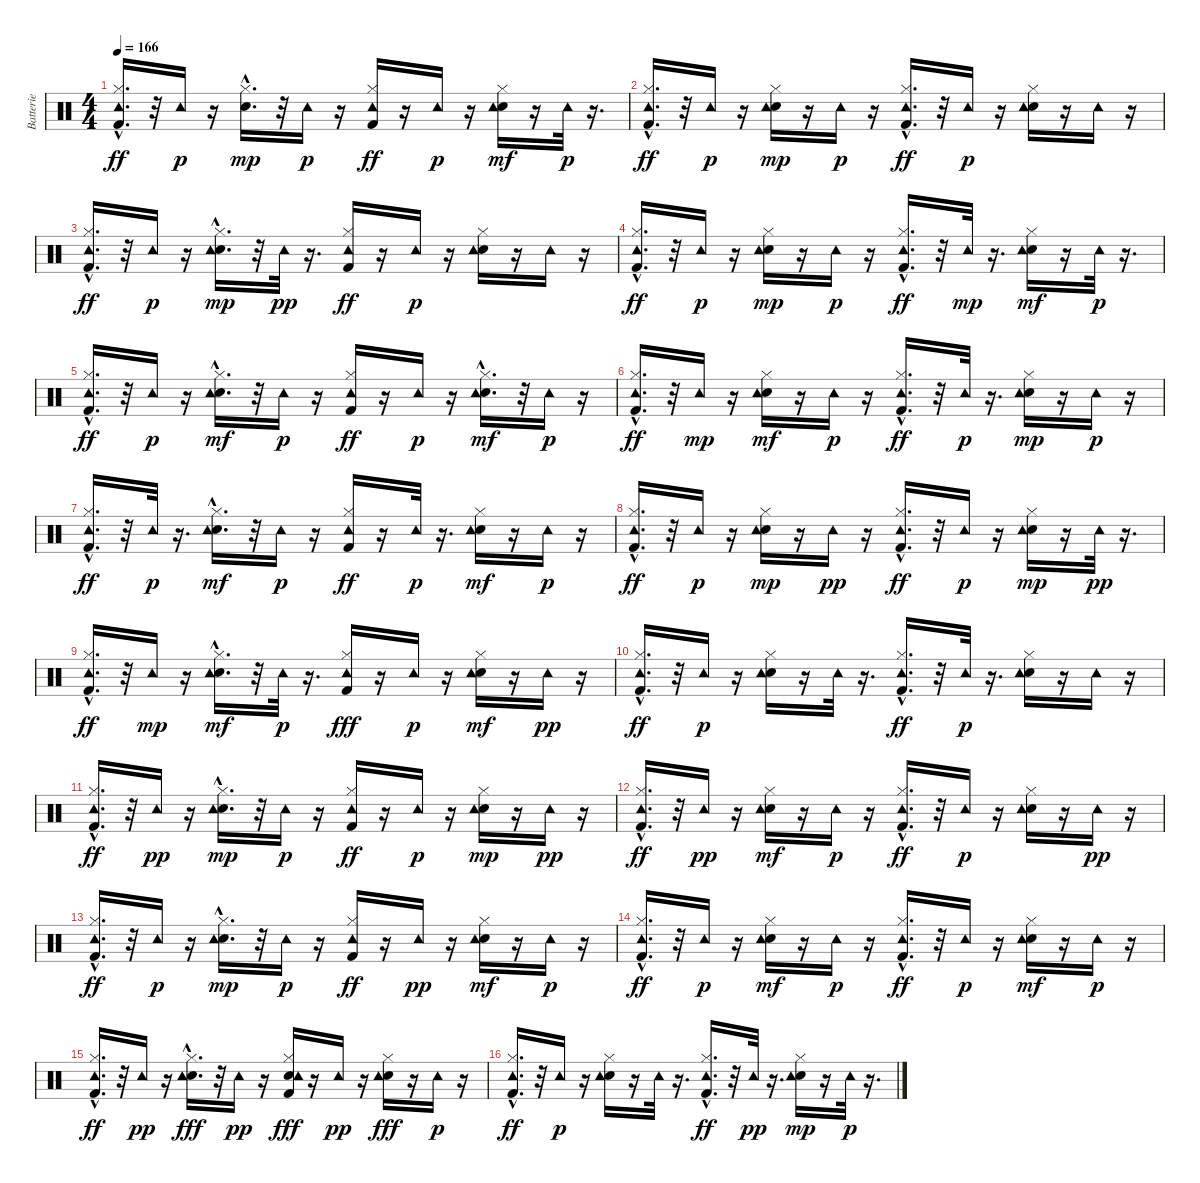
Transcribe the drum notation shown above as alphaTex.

\track ("Batterie" "Batterie") {instrument percussion}
\staff {score}
\articulation defaults
\ts (4 4)
\tempo 166
\clef neutral
\ks c
("Kick (hit) 2"{hac} "Hi-Hat (closed)" "Tambourine (hit)").16{d dy ff} r.32 "Tambourine (hit)".16{dy p} r.16 ("Electric Snare (hit)" "Hi-Hat (closed)"{hac}).16{d dy mp} r.32 "Tambourine (hit)".16{dy p} r.16 ("Kick (hit) 2" "Hi-Hat (closed)" "Tambourine (hit)").16{dy ff} r.16 "Tambourine (hit)".16{dy p} r.16 ("Electric Snare (hit)" "Hi-Hat (closed)" "Tambourine (hit)").16{dy mf} r.16 "Tambourine (hit)".32{dy p} r.16{d} |
("Kick (hit) 2"{hac} "Hi-Hat (closed)"{hac} "Tambourine (hit)").16{d dy ff} r.32 "Tambourine (hit)".16{dy p} r.16 ("Electric Snare (hit)" "Hi-Hat (closed)" "Tambourine (hit)").16{dy mp} r.16 "Tambourine (hit)".16{dy p} r.16 ("Kick (hit) 2"{hac} "Hi-Hat (closed)" "Tambourine (hit)").16{d dy ff} r.32 "Tambourine (hit)".16{dy p} r.16 ("Electric Snare (hit)" "Hi-Hat (closed)" "Tambourine (hit)").16 r.16 "Tambourine (hit)".16 r.16 |
("Kick (hit) 2"{hac} "Hi-Hat (closed)" "Tambourine (hit)").16{d dy ff} r.32 "Tambourine (hit)".16{dy p} r.16 ("Electric Snare (hit)" "Hi-Hat (closed)"{hac} "Tambourine (hit)").16{d dy mp} r.32 "Tambourine (hit)".32{dy pp} r.16{d} ("Kick (hit) 2" "Hi-Hat (closed)" "Tambourine (hit)").16{dy ff} r.16 "Tambourine (hit)".16{dy p} r.16 ("Electric Snare (hit)" "Hi-Hat (closed)" "Tambourine (hit)").16 r.16 "Tambourine (hit)".16 r.16 |
("Kick (hit) 2"{hac} "Hi-Hat (closed)"{hac} "Tambourine (hit)").16{d dy ff} r.32 "Tambourine (hit)".16{dy p} r.16 ("Electric Snare (hit)" "Hi-Hat (closed)" "Tambourine (hit)").16{dy mp} r.16 "Tambourine (hit)".16{dy p} r.16 ("Kick (hit) 2"{hac} "Hi-Hat (closed)" "Tambourine (hit)").16{d dy ff} r.32 "Tambourine (hit)".32{dy mp} r.16{d} ("Electric Snare (hit)" "Hi-Hat (closed)" "Tambourine (hit)").16{dy mf} r.16 "Tambourine (hit)".32{dy p} r.16{d} |
("Kick (hit) 2"{hac} "Hi-Hat (closed)" "Tambourine (hit)").16{d dy ff} r.32 "Tambourine (hit)".16{dy p} r.16 ("Electric Snare (hit)" "Hi-Hat (closed)"{hac} "Tambourine (hit)").16{d dy mf} r.32 "Tambourine (hit)".16{dy p} r.16 ("Kick (hit) 2" "Hi-Hat (closed)" "Tambourine (hit)").16{dy ff} r.16 "Tambourine (hit)".16{dy p} r.16 ("Electric Snare (hit)"{hac} "Hi-Hat (closed)" "Tambourine (hit)").16{d dy mf} r.32 "Tambourine (hit)".16{dy p} r.16 |
("Kick (hit) 2"{hac} "Hi-Hat (closed)"{hac} "Tambourine (hit)").16{d dy ff} r.32 "Tambourine (hit)".16{dy mp} r.16 ("Electric Snare (hit)" "Hi-Hat (closed)" "Tambourine (hit)").16{dy mf} r.16 "Tambourine (hit)".16{dy p} r.16 ("Kick (hit) 2"{hac} "Hi-Hat (closed)" "Tambourine (hit)").16{d dy ff} r.32 "Tambourine (hit)".32{dy p} r.16{d} ("Electric Snare (hit)" "Hi-Hat (closed)" "Tambourine (hit)").16{dy mp} r.16 "Tambourine (hit)".16{dy p} r.16 |
("Kick (hit) 2"{hac} "Hi-Hat (closed)" "Tambourine (hit)").16{d dy ff} r.32 "Tambourine (hit)".32{dy p} r.16{d} ("Electric Snare (hit)" "Hi-Hat (closed)"{hac} "Tambourine (hit)").16{d dy mf} r.32 "Tambourine (hit)".16{dy p} r.16 ("Kick (hit) 2" "Hi-Hat (closed)" "Tambourine (hit)").16{dy ff} r.16 "Tambourine (hit)".32{dy p} r.16{d} ("Electric Snare (hit)" "Hi-Hat (closed)" "Tambourine (hit)").16{dy mf} r.16 "Tambourine (hit)".16{dy p} r.16 |
("Kick (hit) 2"{hac} "Hi-Hat (closed)"{hac} "Tambourine (hit)").16{d dy ff} r.32 "Tambourine (hit)".16{dy p} r.16 ("Electric Snare (hit)" "Hi-Hat (closed)" "Tambourine (hit)").16{dy mp} r.16 "Tambourine (hit)".16{dy pp} r.16 ("Kick (hit) 2"{hac} "Hi-Hat (closed)" "Tambourine (hit)").16{d dy ff} r.32 "Tambourine (hit)".16{dy p} r.16 ("Electric Snare (hit)" "Hi-Hat (closed)" "Tambourine (hit)").16{dy mp} r.16 "Tambourine (hit)".32{dy pp} r.16{d} |
("Kick (hit) 2"{hac} "Hi-Hat (closed)" "Tambourine (hit)").16{d dy ff} r.32 "Tambourine (hit)".16{dy mp} r.16 ("Electric Snare (hit)" "Hi-Hat (closed)"{hac} "Tambourine (hit)").16{d dy mf} r.32 "Tambourine (hit)".32{dy p} r.16{d} ("Kick (hit) 2" "Hi-Hat (closed)" "Tambourine (hit)").16{dy fff} r.16 "Tambourine (hit)".16{dy p} r.16 ("Electric Snare (hit)" "Hi-Hat (closed)" "Tambourine (hit)").16{dy mf} r.16 "Tambourine (hit)".16{dy pp} r.16 |
("Kick (hit) 2"{hac} "Hi-Hat (closed)"{hac} "Tambourine (hit)").16{d dy ff} r.32 "Tambourine (hit)".16{dy p} r.16 ("Electric Snare (hit)" "Hi-Hat (closed)" "Tambourine (hit)").16 r.16 "Tambourine (hit)".32 r.16{d} ("Kick (hit) 2"{hac} "Hi-Hat (closed)" "Tambourine (hit)").16{d dy ff} r.32 "Tambourine (hit)".32{dy p} r.16{d} ("Electric Snare (hit)" "Hi-Hat (closed)" "Tambourine (hit)").16 r.16 "Tambourine (hit)".16 r.16 |
("Kick (hit) 2"{hac} "Hi-Hat (closed)" "Tambourine (hit)").16{d dy ff} r.32 "Tambourine (hit)".16{dy pp} r.16 ("Electric Snare (hit)" "Hi-Hat (closed)"{hac} "Tambourine (hit)").16{d dy mp} r.32 "Tambourine (hit)".16{dy p} r.16 ("Kick (hit) 2" "Hi-Hat (closed)" "Tambourine (hit)").16{dy ff} r.16 "Tambourine (hit)".16{dy p} r.16 ("Electric Snare (hit)" "Hi-Hat (closed)" "Tambourine (hit)").16{dy mp} r.16 "Tambourine (hit)".16{dy pp} r.16 |
("Kick (hit) 2"{hac} "Hi-Hat (closed)"{hac} "Tambourine (hit)").16{d dy ff} r.32 "Tambourine (hit)".16{dy pp} r.16 ("Electric Snare (hit)" "Hi-Hat (closed)" "Tambourine (hit)").16{dy mf} r.16 "Tambourine (hit)".16{dy p} r.16 ("Kick (hit) 2"{hac} "Hi-Hat (closed)" "Tambourine (hit)").16{d dy ff} r.32 "Tambourine (hit)".16{dy p} r.16 ("Electric Snare (hit)" "Hi-Hat (closed)" "Tambourine (hit)").16 r.16 "Tambourine (hit)".16{dy pp} r.16 |
("Kick (hit) 2"{hac} "Hi-Hat (closed)" "Tambourine (hit)").16{d dy ff} r.32 "Tambourine (hit)".16{dy p} r.16 ("Electric Snare (hit)" "Hi-Hat (closed)"{hac} "Tambourine (hit)").16{d dy mp} r.32 "Tambourine (hit)".16{dy p} r.16 ("Kick (hit) 2" "Hi-Hat (closed)" "Tambourine (hit)").16{dy ff} r.16 "Tambourine (hit)".16{dy pp} r.16 ("Electric Snare (hit)" "Hi-Hat (closed)" "Tambourine (hit)").16{dy mf} r.16 "Tambourine (hit)".16{dy p} r.16 |
("Kick (hit) 2"{hac} "Hi-Hat (closed)"{hac} "Tambourine (hit)").16{d dy ff} r.32 "Tambourine (hit)".16{dy p} r.16 ("Electric Snare (hit)" "Hi-Hat (closed)" "Tambourine (hit)").16{dy mf} r.16 "Tambourine (hit)".16{dy p} r.16 ("Kick (hit) 2"{hac} "Hi-Hat (closed)" "Tambourine (hit)").16{d dy ff} r.32 "Tambourine (hit)".16{dy p} r.16 ("Electric Snare (hit)" "Hi-Hat (closed)" "Tambourine (hit)").16{dy mf} r.16 "Tambourine (hit)".16{dy p} r.16 |
("Kick (hit) 2"{hac} "Hi-Hat (closed)" "Tambourine (hit)").16{d dy ff} r.32 "Tambourine (hit)".16{dy pp} r.16 ("Electric Snare (hit)" "Hi-Hat (closed)"{hac} "Tambourine (hit)").16{d dy fff} r.32 "Tambourine (hit)".16{dy pp} r.16 ("Kick (hit) 2" "Electric Snare (hit)" "Hi-Hat (closed)" "Tambourine (hit)").16{dy fff} r.16 "Tambourine (hit)".16{dy pp} r.16 ("Electric Snare (hit)" "Hi-Hat (closed)" "Tambourine (hit)").16{dy fff} r.16 "Tambourine (hit)".16{dy p} r.16 |
("Kick (hit) 2"{hac} "Hi-Hat (closed)"{hac} "Tambourine (hit)").16{d dy ff} r.32 "Tambourine (hit)".16{dy p} r.16 ("Electric Snare (hit)" "Hi-Hat (closed)" "Tambourine (hit)").16 r.16 "Tambourine (hit)".32 r.16{d} ("Kick (hit) 2"{hac} "Hi-Hat (closed)" "Tambourine (hit)").16{d dy ff} r.32 "Tambourine (hit)".32{dy pp} r.16{d} ("Electric Snare (hit)" "Hi-Hat (closed)" "Tambourine (hit)").16{dy mp} r.16 "Tambourine (hit)".32{dy p} r.16{d}
